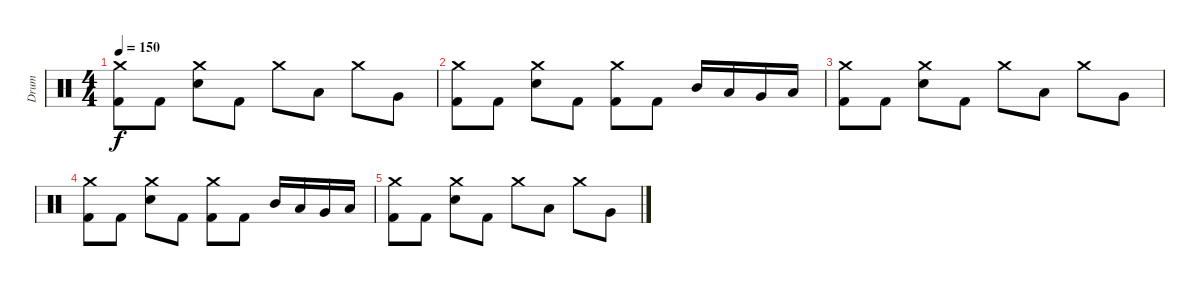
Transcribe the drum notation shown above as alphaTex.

\track ("Drum" "Drum") {instrument percussion}
\staff {score}
\articulation defaults
\ts (4 4)
\tempo 150
\clef neutral
\ks c
("Crash medium (hit)" "Kick (hit) 2").8{dy f} "Kick (hit) 2".8 ("Crash medium (hit)" "Electric Snare (hit)").8 "Kick (hit) 2".8 "Crash medium (hit)".8 "Low Tom (hit)".8 "Crash medium (hit)".8 "Very Low Tom (hit)".8 |
("Crash medium (hit)" "Kick (hit) 2").8 "Kick (hit) 2".8 ("Crash medium (hit)" "Electric Snare (hit)").8 "Kick (hit) 2".8 ("Crash medium (hit)" "Kick (hit) 2").8 "Kick (hit) 2".8 "Mid Tom (hit)".16 "Low Tom (hit)".16 "Very Low Tom (hit)".16 "Low Floor Tom (hit)".16 |
("Crash medium (hit)" "Kick (hit) 2").8 "Kick (hit) 2".8 ("Crash medium (hit)" "Electric Snare (hit)").8 "Kick (hit) 2".8 "Crash medium (hit)".8 "Low Tom (hit)".8 "Crash medium (hit)".8 "Very Low Tom (hit)".8 |
("Crash medium (hit)" "Kick (hit) 2").8 "Kick (hit) 2".8 ("Crash medium (hit)" "Electric Snare (hit)").8 "Kick (hit) 2".8 ("Crash medium (hit)" "Kick (hit) 2").8 "Kick (hit) 2".8 "Mid Tom (hit)".16 "Low Tom (hit)".16 "Very Low Tom (hit)".16 "Low Floor Tom (hit)".16 |
("Crash medium (hit)" "Kick (hit) 2").8 "Kick (hit) 2".8 ("Crash medium (hit)" "Electric Snare (hit)").8 "Kick (hit) 2".8 "Crash medium (hit)".8 "Low Tom (hit)".8 "Crash medium (hit)".8 "Very Low Tom (hit)".8
